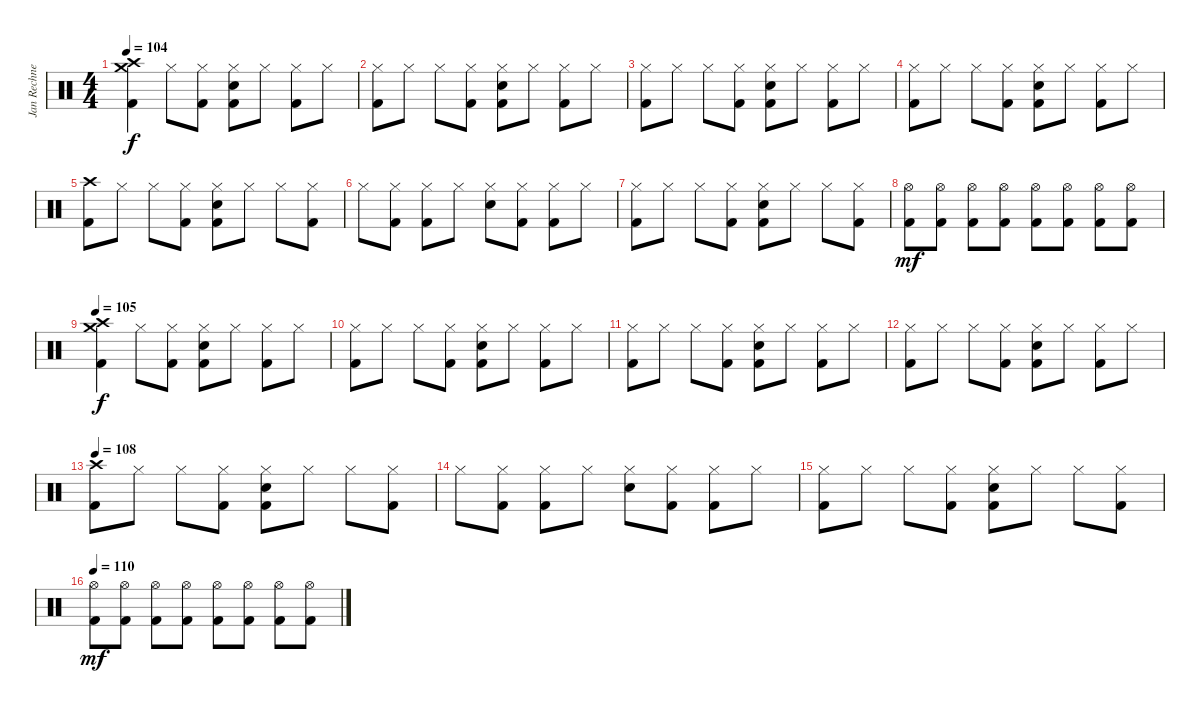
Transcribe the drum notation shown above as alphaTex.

\track ("Jan Rechnerger" "Jan Rechne") {instrument percussion}
\staff {score}
\articulation defaults
\ts (4 4)
\tempo 104
\clef neutral
\ks c
("Crash high (hit)" "Crash medium (hit)" "Kick (hit) 2").4{dy f} "Hi-Hat (closed)".8 ("Hi-Hat (closed)" "Kick (hit) 2").8 ("Hi-Hat (closed)" "Snare (hit) 2" "Kick (hit) 2").8 "Hi-Hat (closed)".8 ("Hi-Hat (closed)" "Kick (hit) 2").8 "Hi-Hat (closed)".8 |
("Hi-Hat (closed)" "Kick (hit) 2").8 "Hi-Hat (closed)".8 "Hi-Hat (closed)".8 ("Hi-Hat (closed)" "Kick (hit) 2").8 ("Hi-Hat (closed)" "Snare (hit) 2" "Kick (hit) 2").8 "Hi-Hat (closed)".8 ("Hi-Hat (closed)" "Kick (hit) 2").8 "Hi-Hat (closed)".8 |
("Hi-Hat (closed)" "Kick (hit) 2").8 "Hi-Hat (closed)".8 "Hi-Hat (closed)".8 ("Hi-Hat (closed)" "Kick (hit) 2").8 ("Hi-Hat (closed)" "Snare (hit) 2" "Kick (hit) 2").8 "Hi-Hat (closed)".8 ("Hi-Hat (closed)" "Kick (hit) 2").8 "Hi-Hat (closed)".8 |
("Hi-Hat (closed)" "Kick (hit) 2").8 "Hi-Hat (closed)".8 "Hi-Hat (closed)".8 ("Hi-Hat (closed)" "Kick (hit) 2").8 ("Hi-Hat (closed)" "Snare (hit) 2" "Kick (hit) 2").8 "Hi-Hat (closed)".8 ("Hi-Hat (closed)" "Kick (hit) 2").8 "Hi-Hat (closed)".8 |
("Crash high (hit)" "Kick (hit) 2").8 "Hi-Hat (closed)".8 "Hi-Hat (closed)".8 ("Hi-Hat (closed)" "Kick (hit) 2").8 ("Hi-Hat (closed)" "Snare (hit) 2" "Kick (hit) 2").8 "Hi-Hat (closed)".8 "Hi-Hat (closed)".8 ("Hi-Hat (closed)" "Kick (hit) 2").8 |
"Hi-Hat (closed)".8 ("Hi-Hat (closed)" "Kick (hit) 2").8 ("Hi-Hat (closed)" "Kick (hit) 2").8 "Hi-Hat (closed)".8 ("Hi-Hat (closed)" "Snare (hit) 2").8 ("Hi-Hat (closed)" "Kick (hit) 2").8 ("Hi-Hat (closed)" "Kick (hit) 2").8 "Hi-Hat (closed)".8 |
("Hi-Hat (closed)" "Kick (hit) 2").8 "Hi-Hat (closed)".8 "Hi-Hat (closed)".8 ("Hi-Hat (closed)" "Kick (hit) 2").8 ("Hi-Hat (closed)" "Snare (hit) 2" "Kick (hit) 2").8 "Hi-Hat (closed)".8 "Hi-Hat (closed)".8 ("Hi-Hat (closed)" "Kick (hit) 2").8 |
("Hi-Hat (open)" "Kick (hit) 2").8{dy mf} ("Hi-Hat (open)" "Kick (hit) 2").8 ("Hi-Hat (open)" "Kick (hit) 2").8 ("Hi-Hat (open)" "Kick (hit) 2").8 ("Hi-Hat (open)" "Kick (hit) 2").8 ("Hi-Hat (open)" "Kick (hit) 2").8 ("Hi-Hat (open)" "Kick (hit) 2").8 ("Hi-Hat (open)" "Kick (hit) 2").8 |
\tempo 105
("Crash high (hit)" "Crash medium (hit)" "Kick (hit) 2").4{dy f} "Hi-Hat (closed)".8 ("Hi-Hat (closed)" "Kick (hit) 2").8 ("Hi-Hat (closed)" "Snare (hit) 2" "Kick (hit) 2").8 "Hi-Hat (closed)".8 ("Hi-Hat (closed)" "Kick (hit) 2").8 "Hi-Hat (closed)".8 |
("Hi-Hat (closed)" "Kick (hit) 2").8 "Hi-Hat (closed)".8 "Hi-Hat (closed)".8 ("Hi-Hat (closed)" "Kick (hit) 2").8 ("Hi-Hat (closed)" "Snare (hit) 2" "Kick (hit) 2").8 "Hi-Hat (closed)".8 ("Hi-Hat (closed)" "Kick (hit) 2").8 "Hi-Hat (closed)".8 |
("Hi-Hat (closed)" "Kick (hit) 2").8 "Hi-Hat (closed)".8 "Hi-Hat (closed)".8 ("Hi-Hat (closed)" "Kick (hit) 2").8 ("Hi-Hat (closed)" "Snare (hit) 2" "Kick (hit) 2").8 "Hi-Hat (closed)".8 ("Hi-Hat (closed)" "Kick (hit) 2").8 "Hi-Hat (closed)".8 |
("Hi-Hat (closed)" "Kick (hit) 2").8 "Hi-Hat (closed)".8 "Hi-Hat (closed)".8 ("Hi-Hat (closed)" "Kick (hit) 2").8 ("Hi-Hat (closed)" "Snare (hit) 2" "Kick (hit) 2").8 "Hi-Hat (closed)".8 ("Hi-Hat (closed)" "Kick (hit) 2").8 "Hi-Hat (closed)".8 |
\tempo 108
("Crash high (hit)" "Kick (hit) 2").8 "Hi-Hat (closed)".8 "Hi-Hat (closed)".8 ("Hi-Hat (closed)" "Kick (hit) 2").8 ("Hi-Hat (closed)" "Snare (hit) 2" "Kick (hit) 2").8 "Hi-Hat (closed)".8 "Hi-Hat (closed)".8 ("Hi-Hat (closed)" "Kick (hit) 2").8 |
"Hi-Hat (closed)".8 ("Hi-Hat (closed)" "Kick (hit) 2").8 ("Hi-Hat (closed)" "Kick (hit) 2").8 "Hi-Hat (closed)".8 ("Hi-Hat (closed)" "Snare (hit) 2").8 ("Hi-Hat (closed)" "Kick (hit) 2").8 ("Hi-Hat (closed)" "Kick (hit) 2").8 "Hi-Hat (closed)".8 |
("Hi-Hat (closed)" "Kick (hit) 2").8 "Hi-Hat (closed)".8 "Hi-Hat (closed)".8 ("Hi-Hat (closed)" "Kick (hit) 2").8 ("Hi-Hat (closed)" "Snare (hit) 2" "Kick (hit) 2").8 "Hi-Hat (closed)".8 "Hi-Hat (closed)".8 ("Hi-Hat (closed)" "Kick (hit) 2").8 |
\tempo 110
("Hi-Hat (open)" "Kick (hit) 2").8{dy mf} ("Hi-Hat (open)" "Kick (hit) 2").8 ("Hi-Hat (open)" "Kick (hit) 2").8 ("Hi-Hat (open)" "Kick (hit) 2").8 ("Hi-Hat (open)" "Kick (hit) 2").8 ("Hi-Hat (open)" "Kick (hit) 2").8 ("Hi-Hat (open)" "Kick (hit) 2").8 ("Hi-Hat (open)" "Kick (hit) 2").8
